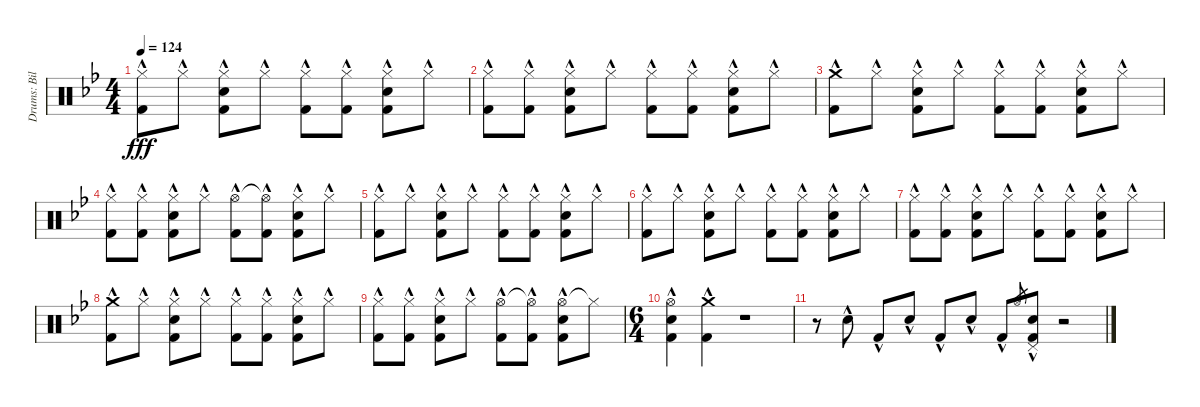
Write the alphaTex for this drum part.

\track ("Drums: Bill" "Drums: Bil") {instrument percussion}
\staff {score}
\articulation defaults
\ts (4 4)
\tempo 124
\clef neutral
\ks bb
("Hi-Hat (closed)"{hac} "Kick (hit) 2"{hac}).8{dy fff} "Hi-Hat (closed)"{hac}.8 ("Hi-Hat (closed)"{hac} "Snare (hit) 2"{hac} "Kick (hit) 2"{hac}).8 "Hi-Hat (closed)"{hac}.8 ("Hi-Hat (closed)"{hac} "Kick (hit) 2"{hac}).8 ("Hi-Hat (closed)"{hac} "Kick (hit) 2"{hac}).8 ("Hi-Hat (closed)"{hac} "Snare (hit) 2"{hac} "Kick (hit) 2"{hac}).8 "Hi-Hat (closed)"{hac}.8 |
("Hi-Hat (closed)"{hac} "Kick (hit) 2"{hac}).8 ("Hi-Hat (closed)"{hac} "Kick (hit) 2"{hac}).8 ("Hi-Hat (closed)"{hac} "Snare (hit) 2"{hac} "Kick (hit) 2"{hac}).8 "Hi-Hat (closed)"{hac}.8 ("Hi-Hat (closed)"{hac} "Kick (hit) 2"{hac}).8 ("Hi-Hat (closed)"{hac} "Kick (hit) 2"{hac}).8 ("Hi-Hat (closed)"{hac} "Snare (hit) 2"{hac} "Kick (hit) 2"{hac}).8 "Hi-Hat (closed)"{hac}.8 |
("Crash medium (hit)"{hac} "Kick (hit) 2"{hac}).8 "Hi-Hat (closed)"{hac}.8 ("Hi-Hat (closed)"{hac} "Snare (hit) 2"{hac} "Kick (hit) 2"{hac}).8 "Hi-Hat (closed)"{hac}.8 ("Hi-Hat (closed)"{hac} "Kick (hit) 2"{hac}).8 ("Hi-Hat (closed)"{hac} "Kick (hit) 2"{hac}).8 ("Hi-Hat (closed)"{hac} "Snare (hit) 2"{hac} "Kick (hit) 2"{hac}).8 "Hi-Hat (closed)"{hac}.8 |
("Hi-Hat (closed)"{hac} "Kick (hit) 2"{hac}).8 ("Hi-Hat (closed)"{hac} "Kick (hit) 2"{hac}).8 ("Hi-Hat (closed)"{hac} "Snare (hit) 2"{hac} "Kick (hit) 2"{hac}).8 "Hi-Hat (closed)"{hac}.8 ("Hi-Hat (open)"{hac} "Kick (hit) 2"{hac}).8 ("Hi-Hat (open)"{t} "Kick (hit) 2"{hac}).8 ("Hi-Hat (closed)"{hac} "Snare (hit) 2"{hac} "Kick (hit) 2"{hac}).8 "Hi-Hat (closed)"{hac}.8 |
("Hi-Hat (closed)"{hac} "Kick (hit) 2"{hac}).8 "Hi-Hat (closed)"{hac}.8 ("Hi-Hat (closed)"{hac} "Snare (hit) 2"{hac} "Kick (hit) 2"{hac}).8 "Hi-Hat (closed)"{hac}.8 ("Hi-Hat (closed)"{hac} "Kick (hit) 2"{hac}).8 ("Hi-Hat (closed)"{hac} "Kick (hit) 2"{hac}).8 ("Hi-Hat (closed)"{hac} "Snare (hit) 2"{hac} "Kick (hit) 2"{hac}).8 "Hi-Hat (closed)"{hac}.8 |
("Hi-Hat (closed)"{hac} "Kick (hit) 2"{hac}).8 "Hi-Hat (closed)"{hac}.8 ("Hi-Hat (closed)"{hac} "Snare (hit) 2"{hac} "Kick (hit) 2"{hac}).8 "Hi-Hat (closed)"{hac}.8 ("Hi-Hat (closed)"{hac} "Kick (hit) 2"{hac}).8 ("Hi-Hat (closed)"{hac} "Kick (hit) 2"{hac}).8 ("Hi-Hat (closed)"{hac} "Snare (hit) 2"{hac} "Kick (hit) 2"{hac}).8 "Hi-Hat (closed)"{hac}.8 |
("Hi-Hat (closed)"{hac} "Kick (hit) 2"{hac}).8 ("Hi-Hat (closed)"{hac} "Kick (hit) 2"{hac}).8 ("Hi-Hat (closed)"{hac} "Snare (hit) 2"{hac} "Kick (hit) 2"{hac}).8 "Hi-Hat (closed)"{hac}.8 ("Hi-Hat (closed)"{hac} "Kick (hit) 2"{hac}).8 ("Hi-Hat (closed)"{hac} "Kick (hit) 2"{hac}).8 ("Hi-Hat (closed)"{hac} "Snare (hit) 2"{hac} "Kick (hit) 2"{hac}).8 "Hi-Hat (closed)"{hac}.8 |
("Crash medium (hit)"{hac} "Kick (hit) 2"{hac}).8 "Hi-Hat (closed)"{hac}.8 ("Hi-Hat (closed)"{hac} "Snare (hit) 2"{hac} "Kick (hit) 2"{hac}).8 "Hi-Hat (closed)"{hac}.8 ("Hi-Hat (closed)"{hac} "Kick (hit) 2"{hac}).8 ("Hi-Hat (closed)"{hac} "Kick (hit) 2"{hac}).8 ("Hi-Hat (closed)"{hac} "Snare (hit) 2"{hac} "Kick (hit) 2"{hac}).8 "Hi-Hat (closed)"{hac}.8 |
("Hi-Hat (closed)"{hac} "Kick (hit) 2"{hac}).8 ("Hi-Hat (closed)"{hac} "Kick (hit) 2"{hac}).8 ("Hi-Hat (closed)"{hac} "Snare (hit) 2"{hac} "Kick (hit) 2"{hac}).8 "Hi-Hat (closed)"{hac}.8 ("Hi-Hat (open)"{hac} "Kick (hit) 2"{hac}).8 ("Hi-Hat (open)"{t} "Kick (hit) 2"{hac}).8 ("Hi-Hat (open)"{hac} "Snare (hit) 2"{hac} "Kick (hit) 2"{hac}).8 "Hi-Hat (closed)"{t}.8 |
\ts (6 4)
("Hi-Hat (open)"{hac} "Snare (hit) 2"{hac} "Kick (hit) 2"{hac}).4 ("Crash medium (hit)"{hac} "Kick (hit) 2"{hac}).4 r.1 |
r.8 "Electric Snare (hit)"{hac}.8 "Kick (hit) 2"{hac}.8 "Electric Snare (hit)"{hac}.8 "Kick (hit) 2"{hac}.8 "Electric Snare (hit)"{hac}.8 "Kick (hit) 2"{hac}.8 "Hi-Hat (open)".8{gr} ("Pedal Hi-Hat (hit)"{hac} "Snare (hit) 2"{hac} "Kick (hit) 2"{hac}).8 r.2
